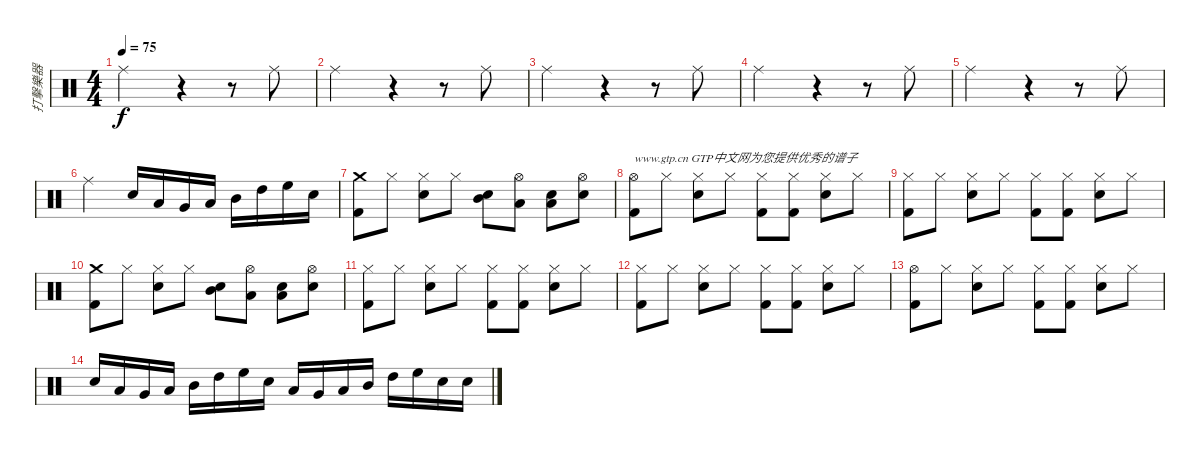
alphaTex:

\track ("打擊樂器" "打擊樂器") {instrument percussion}
\staff {score}
\articulation defaults
\ts (4 4)
\tempo 75
\clef neutral
\ks c "Ride (middle)".2{dy f}
r.4 r.8 "Ride (middle)".8 |
"Ride (middle)".2 r.4 r.8 "Ride (middle)".8 |
"Ride (middle)".2 r.4 r.8 "Ride (middle)".8 |
"Ride (middle)".2 r.4 r.8 "Ride (middle)".8 |
"Ride (middle)".2 r.4 r.8 "Ride (middle)".8 |
"Ride (middle)".2 "Electric Snare (hit)".16 "Low Floor Tom (hit)".16 "Very Low Tom (hit)".16 "Low Tom (hit)".16 "Mid Tom (hit)".16 "High Tom (hit)".16 "High Floor Tom (hit)".16 "Snare (hit) 2".16 |
("Crash medium (hit)" "Kick (hit) 2").8 "Hi-Hat (closed)".8 ("Hi-Hat (closed)" "Electric Snare (hit)").8 "Hi-Hat (closed)".8 ("Electric Snare (hit)" "Mid Tom (hit)").8 ("Hi-Hat (open)" "Low Tom (hit)").8 ("Electric Snare (hit)" "Low Tom (hit)").8 ("Electric Snare (hit)" "Hi-Hat (open)").8 |
("Hi-Hat (open)" "Kick (hit) 2").8{txt "www.gtp.cn GTP中文网为您提供优秀的谱子"} "Hi-Hat (closed)".8 ("Hi-Hat (closed)" "Electric Snare (hit)").8 "Hi-Hat (closed)".8 ("Hi-Hat (closed)" "Kick (hit) 2").8 ("Hi-Hat (closed)" "Kick (hit) 2").8 ("Hi-Hat (closed)" "Electric Snare (hit)").8 "Hi-Hat (closed)".8 |
("Hi-Hat (closed)" "Kick (hit) 2").8 "Hi-Hat (closed)".8 ("Hi-Hat (closed)" "Electric Snare (hit)").8 "Hi-Hat (closed)".8 ("Hi-Hat (closed)" "Kick (hit) 2").8 ("Hi-Hat (closed)" "Kick (hit) 2").8 ("Hi-Hat (closed)" "Electric Snare (hit)").8 "Hi-Hat (closed)".8 |
("Crash medium (hit)" "Kick (hit) 2").8 "Hi-Hat (closed)".8 ("Hi-Hat (closed)" "Electric Snare (hit)").8 "Hi-Hat (closed)".8 ("Electric Snare (hit)" "Mid Tom (hit)").8 ("Hi-Hat (open)" "Low Tom (hit)").8 ("Electric Snare (hit)" "Low Tom (hit)").8 ("Electric Snare (hit)" "Hi-Hat (open)").8 |
("Hi-Hat (closed)" "Kick (hit) 2").8 "Hi-Hat (closed)".8 ("Hi-Hat (closed)" "Electric Snare (hit)").8 "Hi-Hat (closed)".8 ("Hi-Hat (closed)" "Kick (hit) 2").8 ("Hi-Hat (closed)" "Kick (hit) 2").8 ("Hi-Hat (closed)" "Electric Snare (hit)").8 "Hi-Hat (closed)".8 |
("Hi-Hat (closed)" "Kick (hit) 2").8 "Hi-Hat (closed)".8 ("Hi-Hat (closed)" "Electric Snare (hit)").8 "Hi-Hat (closed)".8 ("Hi-Hat (closed)" "Kick (hit) 2").8 ("Hi-Hat (closed)" "Kick (hit) 2").8 ("Hi-Hat (closed)" "Electric Snare (hit)").8 "Hi-Hat (closed)".8 |
("Hi-Hat (open)" "Kick (hit) 2").8 "Hi-Hat (closed)".8 ("Hi-Hat (closed)" "Electric Snare (hit)").8 "Hi-Hat (closed)".8 ("Hi-Hat (closed)" "Kick (hit) 2").8 ("Hi-Hat (closed)" "Kick (hit) 2").8 ("Hi-Hat (closed)" "Electric Snare (hit)").8 "Hi-Hat (closed)".8 |
"Electric Snare (hit)".16 "Low Floor Tom (hit)".16 "Very Low Tom (hit)".16 "Low Tom (hit)".16 "Mid Tom (hit)".16 "High Tom (hit)".16 "High Floor Tom (hit)".16 "Electric Snare (hit)".16 "Low Floor Tom (hit)".16 "Very Low Tom (hit)".16 "Low Tom (hit)".16 "Mid Tom (hit)".16 "High Tom (hit)".16 "High Floor Tom (hit)".16 "Snare (hit) 2".16 "Snare (hit) 2".16
